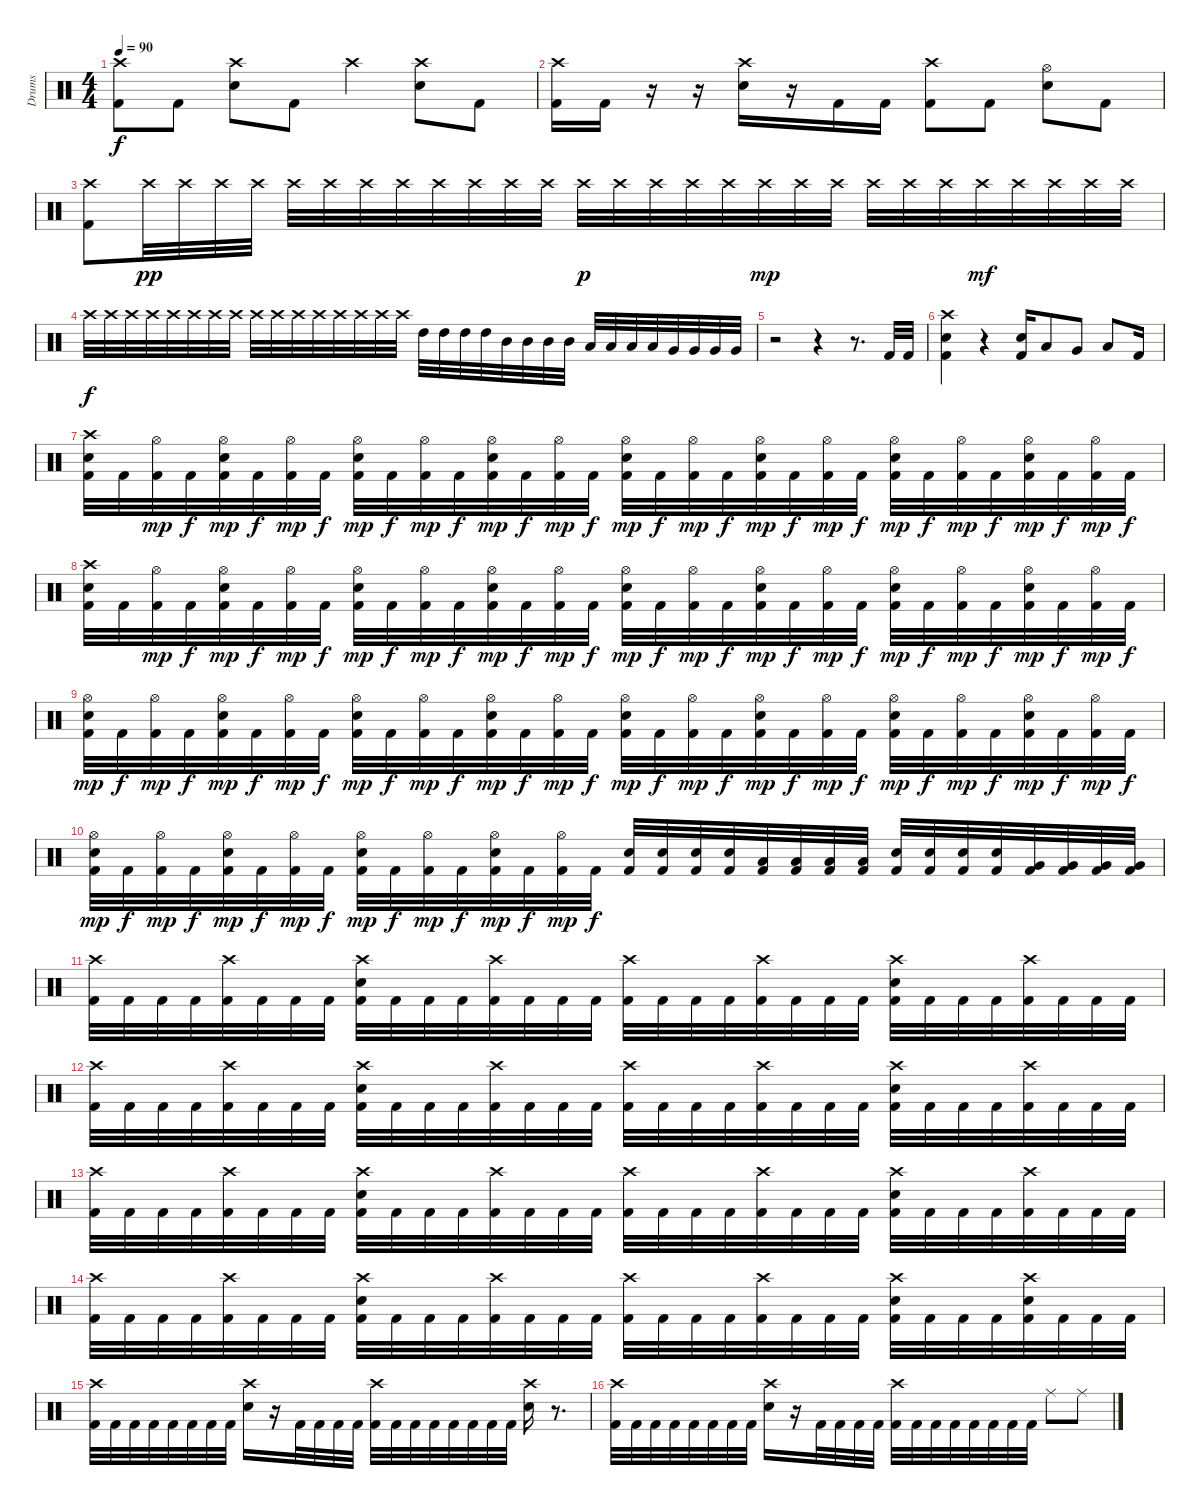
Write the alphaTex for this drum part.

\track ("Drums" "Drums") {instrument percussion}
\staff {score}
\articulation defaults
\ts (4 4)
\tempo 90
\clef neutral
\ks c
("Crash high (hit)" "Kick (hit) 2").8{dy f} "Kick (hit) 2".8 ("Crash high (hit)" "Electric Snare (hit)").8 "Kick (hit) 2".8 "Crash high (hit)".4 ("Crash high (hit)" "Electric Snare (hit)").8 "Kick (hit) 2".8 |
("Crash high (hit)" "Kick (hit) 2").16 "Kick (hit) 2".16 r.16 r.16 ("Crash high (hit)" "Electric Snare (hit)").16 r.16 "Kick (hit) 2".16 "Kick (hit) 2".16 ("Crash high (hit)" "Kick (hit) 2").8 "Kick (hit) 2".8 ("Hi-Hat (open)" "Electric Snare (hit)").8 "Kick (hit) 2".8 |
("Crash high (hit)" "Kick (hit) 2").8 "Crash high (hit)".32{dy pp} "Crash high (hit)".32 "Crash high (hit)".32 "Crash high (hit)".32 "Crash high (hit)".32 "Crash high (hit)".32 "Crash high (hit)".32 "Crash high (hit)".32 "Crash high (hit)".32 "Crash high (hit)".32 "Crash high (hit)".32 "Crash high (hit)".32 "Crash high (hit)".32{dy p} "Crash high (hit)".32 "Crash high (hit)".32 "Crash high (hit)".32 "Crash high (hit)".32 "Crash high (hit)".32{dy mp} "Crash high (hit)".32 "Crash high (hit)".32 "Crash high (hit)".32 "Crash high (hit)".32 "Crash high (hit)".32 "Crash high (hit)".32{dy mf} "Crash high (hit)".32 "Crash high (hit)".32 "Crash high (hit)".32 "Crash high (hit)".32 |
"Crash high (hit)".32{dy f} "Crash high (hit)".32 "Crash high (hit)".32 "Crash high (hit)".32 "Crash high (hit)".32 "Crash high (hit)".32 "Crash high (hit)".32 "Crash high (hit)".32 "Crash high (hit)".32 "Crash high (hit)".32 "Crash high (hit)".32 "Crash high (hit)".32 "Crash high (hit)".32 "Crash high (hit)".32 "Crash high (hit)".32 "Crash high (hit)".32 "High Tom (hit)".32 "High Tom (hit)".32 "High Tom (hit)".32 "High Tom (hit)".32 "Mid Tom (hit)".32 "Mid Tom (hit)".32 "Mid Tom (hit)".32 "Mid Tom (hit)".32 "Low Tom (hit)".32 "Low Tom (hit)".32 "Low Tom (hit)".32 "Low Tom (hit)".32 "Very Low Tom (hit)".32 "Very Low Tom (hit)".32 "Very Low Tom (hit)".32 "Very Low Tom (hit)".32 |
r.2 r.4 r.8{d} "Kick (hit) 2".32 "Kick (hit) 2".32 |
("Crash high (hit)" "Electric Snare (hit)" "Kick (hit) 2").4 r.4 ("Electric Snare (hit)" "Kick (hit) 2").16 "Low Tom (hit)".8 "Very Low Tom (hit)".8 "Low Floor Tom (hit)".8 "Kick (hit) 2".16 |
("Crash high (hit)" "Electric Snare (hit)" "Kick (hit) 2").32 "Kick (hit) 2".32 ("Hi-Hat (open)" "Kick (hit) 2").32{dy mp} "Kick (hit) 2".32{dy f} ("Hi-Hat (open)" "Electric Snare (hit)" "Kick (hit) 2").32{dy mp} "Kick (hit) 2".32{dy f} ("Hi-Hat (open)" "Kick (hit) 2").32{dy mp} "Kick (hit) 2".32{dy f} ("Hi-Hat (open)" "Electric Snare (hit)" "Kick (hit) 2").32{dy mp} "Kick (hit) 2".32{dy f} ("Hi-Hat (open)" "Kick (hit) 2").32{dy mp} "Kick (hit) 2".32{dy f} ("Hi-Hat (open)" "Electric Snare (hit)" "Kick (hit) 2").32{dy mp} "Kick (hit) 2".32{dy f} ("Hi-Hat (open)" "Kick (hit) 2").32{dy mp} "Kick (hit) 2".32{dy f} ("Hi-Hat (open)" "Electric Snare (hit)" "Kick (hit) 2").32{dy mp} "Kick (hit) 2".32{dy f} ("Hi-Hat (open)" "Kick (hit) 2").32{dy mp} "Kick (hit) 2".32{dy f} ("Hi-Hat (open)" "Electric Snare (hit)" "Kick (hit) 2").32{dy mp} "Kick (hit) 2".32{dy f} ("Hi-Hat (open)" "Kick (hit) 2").32{dy mp} "Kick (hit) 2".32{dy f} ("Hi-Hat (open)" "Electric Snare (hit)" "Kick (hit) 2").32{dy mp} "Kick (hit) 2".32{dy f} ("Hi-Hat (open)" "Kick (hit) 2").32{dy mp} "Kick (hit) 2".32{dy f} ("Hi-Hat (open)" "Electric Snare (hit)" "Kick (hit) 2").32{dy mp} "Kick (hit) 2".32{dy f} ("Hi-Hat (open)" "Kick (hit) 2").32{dy mp} "Kick (hit) 2".32{dy f} |
("Crash high (hit)" "Electric Snare (hit)" "Kick (hit) 2").32 "Kick (hit) 2".32 ("Hi-Hat (open)" "Kick (hit) 2").32{dy mp} "Kick (hit) 2".32{dy f} ("Hi-Hat (open)" "Electric Snare (hit)" "Kick (hit) 2").32{dy mp} "Kick (hit) 2".32{dy f} ("Hi-Hat (open)" "Kick (hit) 2").32{dy mp} "Kick (hit) 2".32{dy f} ("Hi-Hat (open)" "Electric Snare (hit)" "Kick (hit) 2").32{dy mp} "Kick (hit) 2".32{dy f} ("Hi-Hat (open)" "Kick (hit) 2").32{dy mp} "Kick (hit) 2".32{dy f} ("Hi-Hat (open)" "Electric Snare (hit)" "Kick (hit) 2").32{dy mp} "Kick (hit) 2".32{dy f} ("Hi-Hat (open)" "Kick (hit) 2").32{dy mp} "Kick (hit) 2".32{dy f} ("Hi-Hat (open)" "Electric Snare (hit)" "Kick (hit) 2").32{dy mp} "Kick (hit) 2".32{dy f} ("Hi-Hat (open)" "Kick (hit) 2").32{dy mp} "Kick (hit) 2".32{dy f} ("Hi-Hat (open)" "Electric Snare (hit)" "Kick (hit) 2").32{dy mp} "Kick (hit) 2".32{dy f} ("Hi-Hat (open)" "Kick (hit) 2").32{dy mp} "Kick (hit) 2".32{dy f} ("Hi-Hat (open)" "Electric Snare (hit)" "Kick (hit) 2").32{dy mp} "Kick (hit) 2".32{dy f} ("Hi-Hat (open)" "Kick (hit) 2").32{dy mp} "Kick (hit) 2".32{dy f} ("Hi-Hat (open)" "Electric Snare (hit)" "Kick (hit) 2").32{dy mp} "Kick (hit) 2".32{dy f} ("Hi-Hat (open)" "Kick (hit) 2").32{dy mp} "Kick (hit) 2".32{dy f} |
("Hi-Hat (open)" "Electric Snare (hit)" "Kick (hit) 2").32{dy mp} "Kick (hit) 2".32{dy f} ("Hi-Hat (open)" "Kick (hit) 2").32{dy mp} "Kick (hit) 2".32{dy f} ("Hi-Hat (open)" "Electric Snare (hit)" "Kick (hit) 2").32{dy mp} "Kick (hit) 2".32{dy f} ("Hi-Hat (open)" "Kick (hit) 2").32{dy mp} "Kick (hit) 2".32{dy f} ("Hi-Hat (open)" "Electric Snare (hit)" "Kick (hit) 2").32{dy mp} "Kick (hit) 2".32{dy f} ("Hi-Hat (open)" "Kick (hit) 2").32{dy mp} "Kick (hit) 2".32{dy f} ("Hi-Hat (open)" "Electric Snare (hit)" "Kick (hit) 2").32{dy mp} "Kick (hit) 2".32{dy f} ("Hi-Hat (open)" "Kick (hit) 2").32{dy mp} "Kick (hit) 2".32{dy f} ("Hi-Hat (open)" "Electric Snare (hit)" "Kick (hit) 2").32{dy mp} "Kick (hit) 2".32{dy f} ("Hi-Hat (open)" "Kick (hit) 2").32{dy mp} "Kick (hit) 2".32{dy f} ("Hi-Hat (open)" "Electric Snare (hit)" "Kick (hit) 2").32{dy mp} "Kick (hit) 2".32{dy f} ("Hi-Hat (open)" "Kick (hit) 2").32{dy mp} "Kick (hit) 2".32{dy f} ("Hi-Hat (open)" "Electric Snare (hit)" "Kick (hit) 2").32{dy mp} "Kick (hit) 2".32{dy f} ("Hi-Hat (open)" "Kick (hit) 2").32{dy mp} "Kick (hit) 2".32{dy f} ("Hi-Hat (open)" "Electric Snare (hit)" "Kick (hit) 2").32{dy mp} "Kick (hit) 2".32{dy f} ("Hi-Hat (open)" "Kick (hit) 2").32{dy mp} "Kick (hit) 2".32{dy f} |
("Hi-Hat (open)" "Electric Snare (hit)" "Kick (hit) 2").32{dy mp} "Kick (hit) 2".32{dy f} ("Hi-Hat (open)" "Kick (hit) 2").32{dy mp} "Kick (hit) 2".32{dy f} ("Hi-Hat (open)" "Electric Snare (hit)" "Kick (hit) 2").32{dy mp} "Kick (hit) 2".32{dy f} ("Hi-Hat (open)" "Kick (hit) 2").32{dy mp} "Kick (hit) 2".32{dy f} ("Hi-Hat (open)" "Electric Snare (hit)" "Kick (hit) 2").32{dy mp} "Kick (hit) 2".32{dy f} ("Hi-Hat (open)" "Kick (hit) 2").32{dy mp} "Kick (hit) 2".32{dy f} ("Hi-Hat (open)" "Electric Snare (hit)" "Kick (hit) 2").32{dy mp} "Kick (hit) 2".32{dy f} ("Hi-Hat (open)" "Kick (hit) 2").32{dy mp} "Kick (hit) 2".32{dy f} ("Electric Snare (hit)" "Kick (hit) 2").32 ("Electric Snare (hit)" "Kick (hit) 2").32 ("Electric Snare (hit)" "Kick (hit) 2").32 ("Electric Snare (hit)" "Kick (hit) 2").32 ("Low Tom (hit)" "Kick (hit) 2").32 ("Low Tom (hit)" "Kick (hit) 2").32 ("Low Tom (hit)" "Kick (hit) 2").32 ("Low Tom (hit)" "Kick (hit) 2").32 ("Electric Snare (hit)" "Kick (hit) 2").32 ("Electric Snare (hit)" "Kick (hit) 2").32 ("Electric Snare (hit)" "Kick (hit) 2").32 ("Electric Snare (hit)" "Kick (hit) 2").32 ("Very Low Tom (hit)" "Kick (hit) 2").32 ("Very Low Tom (hit)" "Kick (hit) 2").32 ("Very Low Tom (hit)" "Kick (hit) 2").32 ("Very Low Tom (hit)" "Kick (hit) 2").32 |
("Crash high (hit)" "Kick (hit) 2").32 "Kick (hit) 2".32 "Kick (hit) 2".32 "Kick (hit) 2".32 ("Crash high (hit)" "Kick (hit) 2").32 "Kick (hit) 2".32 "Kick (hit) 2".32 "Kick (hit) 2".32 ("Crash high (hit)" "Electric Snare (hit)" "Kick (hit) 2").32 "Kick (hit) 2".32 "Kick (hit) 2".32 "Kick (hit) 2".32 ("Crash high (hit)" "Kick (hit) 2").32 "Kick (hit) 2".32 "Kick (hit) 2".32 "Kick (hit) 2".32 ("Crash high (hit)" "Kick (hit) 2").32 "Kick (hit) 2".32 "Kick (hit) 2".32 "Kick (hit) 2".32 ("Crash high (hit)" "Kick (hit) 2").32 "Kick (hit) 2".32 "Kick (hit) 2".32 "Kick (hit) 2".32 ("Crash high (hit)" "Electric Snare (hit)" "Kick (hit) 2").32 "Kick (hit) 2".32 "Kick (hit) 2".32 "Kick (hit) 2".32 ("Crash high (hit)" "Kick (hit) 2").32 "Kick (hit) 2".32 "Kick (hit) 2".32 "Kick (hit) 2".32 |
("Crash high (hit)" "Kick (hit) 2").32 "Kick (hit) 2".32 "Kick (hit) 2".32 "Kick (hit) 2".32 ("Crash high (hit)" "Kick (hit) 2").32 "Kick (hit) 2".32 "Kick (hit) 2".32 "Kick (hit) 2".32 ("Crash high (hit)" "Electric Snare (hit)" "Kick (hit) 2").32 "Kick (hit) 2".32 "Kick (hit) 2".32 "Kick (hit) 2".32 ("Crash high (hit)" "Kick (hit) 2").32 "Kick (hit) 2".32 "Kick (hit) 2".32 "Kick (hit) 2".32 ("Crash high (hit)" "Kick (hit) 2").32 "Kick (hit) 2".32 "Kick (hit) 2".32 "Kick (hit) 2".32 ("Crash high (hit)" "Kick (hit) 2").32 "Kick (hit) 2".32 "Kick (hit) 2".32 "Kick (hit) 2".32 ("Crash high (hit)" "Electric Snare (hit)" "Kick (hit) 2").32 "Kick (hit) 2".32 "Kick (hit) 2".32 "Kick (hit) 2".32 ("Crash high (hit)" "Kick (hit) 2").32 "Kick (hit) 2".32 "Kick (hit) 2".32 "Kick (hit) 2".32 |
("Crash high (hit)" "Kick (hit) 2").32 "Kick (hit) 2".32 "Kick (hit) 2".32 "Kick (hit) 2".32 ("Crash high (hit)" "Kick (hit) 2").32 "Kick (hit) 2".32 "Kick (hit) 2".32 "Kick (hit) 2".32 ("Crash high (hit)" "Electric Snare (hit)" "Kick (hit) 2").32 "Kick (hit) 2".32 "Kick (hit) 2".32 "Kick (hit) 2".32 ("Crash high (hit)" "Kick (hit) 2").32 "Kick (hit) 2".32 "Kick (hit) 2".32 "Kick (hit) 2".32 ("Crash high (hit)" "Kick (hit) 2").32 "Kick (hit) 2".32 "Kick (hit) 2".32 "Kick (hit) 2".32 ("Crash high (hit)" "Kick (hit) 2").32 "Kick (hit) 2".32 "Kick (hit) 2".32 "Kick (hit) 2".32 ("Crash high (hit)" "Electric Snare (hit)" "Kick (hit) 2").32 "Kick (hit) 2".32 "Kick (hit) 2".32 "Kick (hit) 2".32 ("Crash high (hit)" "Kick (hit) 2").32 "Kick (hit) 2".32 "Kick (hit) 2".32 "Kick (hit) 2".32 |
("Crash high (hit)" "Kick (hit) 2").32 "Kick (hit) 2".32 "Kick (hit) 2".32 "Kick (hit) 2".32 ("Crash high (hit)" "Kick (hit) 2").32 "Kick (hit) 2".32 "Kick (hit) 2".32 "Kick (hit) 2".32 ("Crash high (hit)" "Electric Snare (hit)" "Kick (hit) 2").32 "Kick (hit) 2".32 "Kick (hit) 2".32 "Kick (hit) 2".32 ("Crash high (hit)" "Kick (hit) 2").32 "Kick (hit) 2".32 "Kick (hit) 2".32 "Kick (hit) 2".32 ("Crash high (hit)" "Kick (hit) 2").32 "Kick (hit) 2".32 "Kick (hit) 2".32 "Kick (hit) 2".32 ("Crash high (hit)" "Kick (hit) 2").32 "Kick (hit) 2".32 "Kick (hit) 2".32 "Kick (hit) 2".32 ("Crash high (hit)" "Electric Snare (hit)" "Kick (hit) 2").32 "Kick (hit) 2".32 "Kick (hit) 2".32 "Kick (hit) 2".32 ("Crash high (hit)" "Electric Snare (hit)" "Kick (hit) 2").32 "Kick (hit) 2".32 "Kick (hit) 2".32 "Kick (hit) 2".32 |
("Crash high (hit)" "Kick (hit) 2").32 "Kick (hit) 2".32 "Kick (hit) 2".32 "Kick (hit) 2".32 "Kick (hit) 2".32 "Kick (hit) 2".32 "Kick (hit) 2".32 "Kick (hit) 2".32 ("Crash high (hit)" "Electric Snare (hit)").16 r.16 "Kick (hit) 2".32 "Kick (hit) 2".32 "Kick (hit) 2".32 "Kick (hit) 2".32 ("Crash high (hit)" "Kick (hit) 2").32 "Kick (hit) 2".32 "Kick (hit) 2".32 "Kick (hit) 2".32 "Kick (hit) 2".32 "Kick (hit) 2".32 "Kick (hit) 2".32 "Kick (hit) 2".32 ("Crash high (hit)" "Electric Snare (hit)").16 r.8{d} |
("Crash high (hit)" "Kick (hit) 2").32 "Kick (hit) 2".32 "Kick (hit) 2".32 "Kick (hit) 2".32 "Kick (hit) 2".32 "Kick (hit) 2".32 "Kick (hit) 2".32 "Kick (hit) 2".32 ("Crash high (hit)" "Electric Snare (hit)").16 r.16 "Kick (hit) 2".32 "Kick (hit) 2".32 "Kick (hit) 2".32 "Kick (hit) 2".32 ("Crash high (hit)" "Kick (hit) 2").32 "Kick (hit) 2".32 "Kick (hit) 2".32 "Kick (hit) 2".32 "Kick (hit) 2".32 "Kick (hit) 2".32 "Kick (hit) 2".32 "Kick (hit) 2".32 "Ride (middle)".8 "Ride (middle)".8
